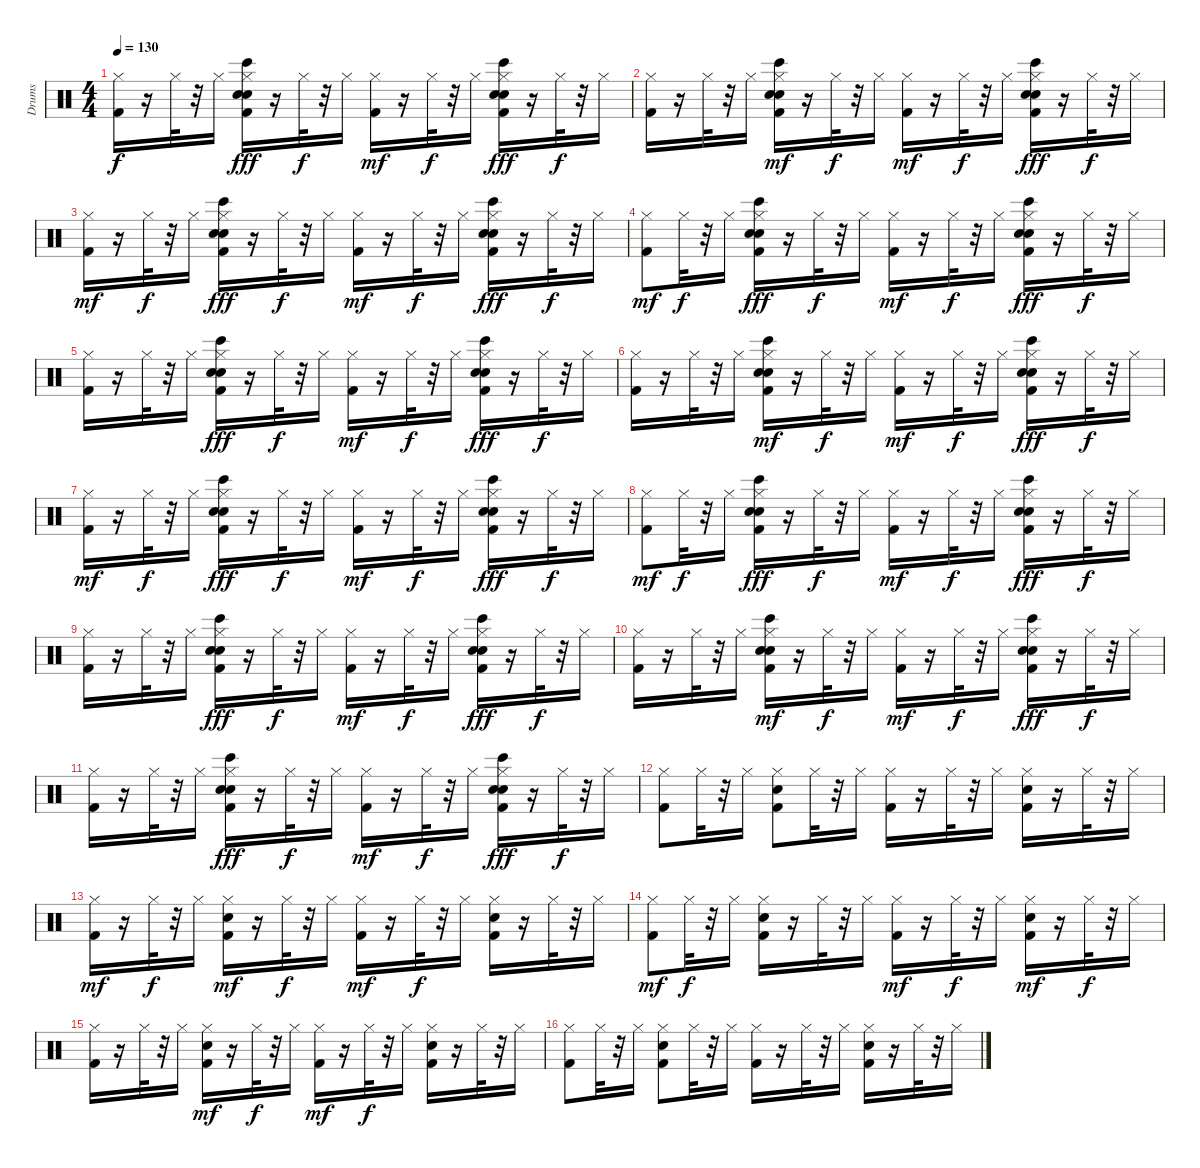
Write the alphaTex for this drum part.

\track ("Drums" "Drums") {instrument percussion}
\staff {score}
\articulation defaults
\ts (4 4)
\tempo 130
\clef neutral
\ks c
("Hi-Hat (closed)" "Kick (hit) 2").16{dy f} r.16 "Hi-Hat (closed)".32 r.32 "Hi-Hat (closed)".16 ("Bongo High (hit)" "Kick (hit) 2" "Snare (hit) 2" "Hi-Hat (closed)" "Hand Clap (hit)").16{dy fff} r.16 "Hi-Hat (closed)".32{dy f} r.32 "Hi-Hat (closed)".16 ("Kick (hit) 2" "Hi-Hat (closed)").16{dy mf} r.16 "Hi-Hat (closed)".32{dy f} r.32 "Hi-Hat (closed)".16 ("Snare (hit) 2" "Kick (hit) 2" "Hi-Hat (closed)" "Bongo High (hit)" "Hand Clap (hit)").16{dy fff} r.16 "Hi-Hat (closed)".32{dy f} r.32 "Hi-Hat (closed)".16 |
("Kick (hit) 2" "Hi-Hat (closed)").16 r.16 "Hi-Hat (closed)".32 r.32 "Hi-Hat (closed)".16 ("Bongo High (hit)" "Hand Clap (hit)" "Kick (hit) 2" "Snare (hit) 2" "Hi-Hat (closed)").16{dy mf} r.16 "Hi-Hat (closed)".32{dy f} r.32 "Hi-Hat (closed)".16 ("Kick (hit) 2" "Hi-Hat (closed)").16{dy mf} r.16 "Hi-Hat (closed)".32{dy f} r.32 "Hi-Hat (closed)".16 ("Bongo High (hit)" "Hand Clap (hit)" "Snare (hit) 2" "Kick (hit) 2" "Hi-Hat (closed)").16{dy fff} r.16 "Hi-Hat (closed)".32{dy f} r.32 "Hi-Hat (closed)".16 |
("Kick (hit) 2" "Hi-Hat (closed)").16{dy mf} r.16 "Hi-Hat (closed)".32{dy f} r.32 "Hi-Hat (closed)".16 ("Snare (hit) 2" "Kick (hit) 2" "Hi-Hat (closed)" "Bongo High (hit)" "Hand Clap (hit)").16{dy fff} r.16 "Hi-Hat (closed)".32{dy f} r.32 "Hi-Hat (closed)".16 ("Hi-Hat (closed)" "Kick (hit) 2").16{dy mf} r.16 "Hi-Hat (closed)".32{dy f} r.32 "Hi-Hat (closed)".16 ("Snare (hit) 2" "Hi-Hat (closed)" "Bongo High (hit)" "Kick (hit) 2" "Hand Clap (hit)").16{dy fff} r.16 "Hi-Hat (closed)".32{dy f} r.32 "Hi-Hat (closed)".16 |
("Kick (hit) 2" "Hi-Hat (closed)").8{dy mf} "Hi-Hat (closed)".32{dy f} r.32 "Hi-Hat (closed)".16 ("Snare (hit) 2" "Kick (hit) 2" "Bongo High (hit)" "Hi-Hat (closed)" "Hand Clap (hit)").16{dy fff} r.16 "Hi-Hat (closed)".32{dy f} r.32 "Hi-Hat (closed)".16 ("Hi-Hat (closed)" "Kick (hit) 2").16{dy mf} r.16 "Hi-Hat (closed)".32{dy f} r.32 "Hi-Hat (closed)".16 ("Kick (hit) 2" "Hi-Hat (closed)" "Snare (hit) 2" "Bongo High (hit)" "Hand Clap (hit)").16{dy fff} r.16 "Hi-Hat (closed)".32{dy f} r.32 "Hi-Hat (closed)".16 |
("Hi-Hat (closed)" "Kick (hit) 2").16 r.16 "Hi-Hat (closed)".32 r.32 "Hi-Hat (closed)".16 ("Bongo High (hit)" "Kick (hit) 2" "Snare (hit) 2" "Hi-Hat (closed)" "Hand Clap (hit)").16{dy fff} r.16 "Hi-Hat (closed)".32{dy f} r.32 "Hi-Hat (closed)".16 ("Kick (hit) 2" "Hi-Hat (closed)").16{dy mf} r.16 "Hi-Hat (closed)".32{dy f} r.32 "Hi-Hat (closed)".16 ("Snare (hit) 2" "Kick (hit) 2" "Hi-Hat (closed)" "Bongo High (hit)" "Hand Clap (hit)").16{dy fff} r.16 "Hi-Hat (closed)".32{dy f} r.32 "Hi-Hat (closed)".16 |
("Kick (hit) 2" "Hi-Hat (closed)").16 r.16 "Hi-Hat (closed)".32 r.32 "Hi-Hat (closed)".16 ("Bongo High (hit)" "Hand Clap (hit)" "Kick (hit) 2" "Snare (hit) 2" "Hi-Hat (closed)").16{dy mf} r.16 "Hi-Hat (closed)".32{dy f} r.32 "Hi-Hat (closed)".16 ("Kick (hit) 2" "Hi-Hat (closed)").16{dy mf} r.16 "Hi-Hat (closed)".32{dy f} r.32 "Hi-Hat (closed)".16 ("Bongo High (hit)" "Hand Clap (hit)" "Snare (hit) 2" "Kick (hit) 2" "Hi-Hat (closed)").16{dy fff} r.16 "Hi-Hat (closed)".32{dy f} r.32 "Hi-Hat (closed)".16 |
("Kick (hit) 2" "Hi-Hat (closed)").16{dy mf} r.16 "Hi-Hat (closed)".32{dy f} r.32 "Hi-Hat (closed)".16 ("Snare (hit) 2" "Kick (hit) 2" "Hi-Hat (closed)" "Bongo High (hit)" "Hand Clap (hit)").16{dy fff} r.16 "Hi-Hat (closed)".32{dy f} r.32 "Hi-Hat (closed)".16 ("Hi-Hat (closed)" "Kick (hit) 2").16{dy mf} r.16 "Hi-Hat (closed)".32{dy f} r.32 "Hi-Hat (closed)".16 ("Snare (hit) 2" "Hi-Hat (closed)" "Bongo High (hit)" "Kick (hit) 2" "Hand Clap (hit)").16{dy fff} r.16 "Hi-Hat (closed)".32{dy f} r.32 "Hi-Hat (closed)".16 |
("Kick (hit) 2" "Hi-Hat (closed)").8{dy mf} "Hi-Hat (closed)".32{dy f} r.32 "Hi-Hat (closed)".16 ("Snare (hit) 2" "Kick (hit) 2" "Bongo High (hit)" "Hi-Hat (closed)" "Hand Clap (hit)").16{dy fff} r.16 "Hi-Hat (closed)".32{dy f} r.32 "Hi-Hat (closed)".16 ("Hi-Hat (closed)" "Kick (hit) 2").16{dy mf} r.16 "Hi-Hat (closed)".32{dy f} r.32 "Hi-Hat (closed)".16 ("Kick (hit) 2" "Hi-Hat (closed)" "Snare (hit) 2" "Bongo High (hit)" "Hand Clap (hit)").16{dy fff} r.16 "Hi-Hat (closed)".32{dy f} r.32 "Hi-Hat (closed)".16 |
("Hi-Hat (closed)" "Kick (hit) 2").16 r.16 "Hi-Hat (closed)".32 r.32 "Hi-Hat (closed)".16 ("Bongo High (hit)" "Kick (hit) 2" "Snare (hit) 2" "Hi-Hat (closed)" "Hand Clap (hit)").16{dy fff} r.16 "Hi-Hat (closed)".32{dy f} r.32 "Hi-Hat (closed)".16 ("Kick (hit) 2" "Hi-Hat (closed)").16{dy mf} r.16 "Hi-Hat (closed)".32{dy f} r.32 "Hi-Hat (closed)".16 ("Snare (hit) 2" "Kick (hit) 2" "Hi-Hat (closed)" "Bongo High (hit)" "Hand Clap (hit)").16{dy fff} r.16 "Hi-Hat (closed)".32{dy f} r.32 "Hi-Hat (closed)".16 |
("Kick (hit) 2" "Hi-Hat (closed)").16 r.16 "Hi-Hat (closed)".32 r.32 "Hi-Hat (closed)".16 ("Bongo High (hit)" "Hand Clap (hit)" "Kick (hit) 2" "Snare (hit) 2" "Hi-Hat (closed)").16{dy mf} r.16 "Hi-Hat (closed)".32{dy f} r.32 "Hi-Hat (closed)".16 ("Kick (hit) 2" "Hi-Hat (closed)").16{dy mf} r.16 "Hi-Hat (closed)".32{dy f} r.32 "Hi-Hat (closed)".16 ("Bongo High (hit)" "Hand Clap (hit)" "Snare (hit) 2" "Kick (hit) 2" "Hi-Hat (closed)").16{dy fff} r.16 "Hi-Hat (closed)".32{dy f} r.32 "Hi-Hat (closed)".16 |
("Kick (hit) 2" "Hi-Hat (closed)").16 r.16 "Hi-Hat (closed)".32 r.32 "Hi-Hat (closed)".16 ("Kick (hit) 2" "Snare (hit) 2" "Hi-Hat (closed)" "Bongo High (hit)" "Hand Clap (hit)").16{dy fff} r.16 "Hi-Hat (closed)".32{dy f} r.32 "Hi-Hat (closed)".16 ("Kick (hit) 2" "Hi-Hat (closed)").16{dy mf} r.16 "Hi-Hat (closed)".32{dy f} r.32 "Hi-Hat (closed)".16 ("Snare (hit) 2" "Kick (hit) 2" "Hi-Hat (closed)" "Bongo High (hit)" "Hand Clap (hit)").16{dy fff} r.16 "Hi-Hat (closed)".32{dy f} r.32 "Hi-Hat (closed)".16 |
("Hi-Hat (closed)" "Kick (hit) 2").8 "Hi-Hat (closed)".32 r.32 "Hi-Hat (closed)".16 ("Hi-Hat (closed)" "Kick (hit) 2" "Snare (hit) 2").8 "Hi-Hat (closed)".32 r.32 "Hi-Hat (closed)".16 ("Hi-Hat (closed)" "Kick (hit) 2").16 r.16 "Hi-Hat (closed)".32 r.32 "Hi-Hat (closed)".16 ("Hi-Hat (closed)" "Snare (hit) 2" "Kick (hit) 2").16 r.16 "Hi-Hat (closed)".32 r.32 "Hi-Hat (closed)".16 |
("Kick (hit) 2" "Hi-Hat (closed)").16{dy mf} r.16 "Hi-Hat (closed)".32{dy f} r.32 "Hi-Hat (closed)".16 ("Snare (hit) 2" "Kick (hit) 2" "Hi-Hat (closed)").16{dy mf} r.16 "Hi-Hat (closed)".32{dy f} r.32 "Hi-Hat (closed)".16 ("Kick (hit) 2" "Hi-Hat (closed)").16{dy mf} r.16 "Hi-Hat (closed)".32{dy f} r.32 "Hi-Hat (closed)".16 ("Snare (hit) 2" "Kick (hit) 2" "Hi-Hat (closed)").16 r.16 "Hi-Hat (closed)".32 r.32 "Hi-Hat (closed)".16 |
("Kick (hit) 2" "Hi-Hat (closed)").8{dy mf} "Hi-Hat (closed)".32{dy f} r.32 "Hi-Hat (closed)".16 ("Snare (hit) 2" "Kick (hit) 2" "Hi-Hat (closed)").16 r.16 "Hi-Hat (closed)".32 r.32 "Hi-Hat (closed)".16 ("Kick (hit) 2" "Hi-Hat (closed)").16{dy mf} r.16 "Hi-Hat (closed)".32{dy f} r.32 "Hi-Hat (closed)".16 ("Snare (hit) 2" "Kick (hit) 2" "Hi-Hat (closed)").16{dy mf} r.16 "Hi-Hat (closed)".32{dy f} r.32 "Hi-Hat (closed)".16 |
("Kick (hit) 2" "Hi-Hat (closed)").16 r.16 "Hi-Hat (closed)".32 r.32 "Hi-Hat (closed)".16 ("Kick (hit) 2" "Snare (hit) 2" "Hi-Hat (closed)").16{dy mf} r.16 "Hi-Hat (closed)".32{dy f} r.32 "Hi-Hat (closed)".16 ("Kick (hit) 2" "Hi-Hat (closed)").16{dy mf} r.16 "Hi-Hat (closed)".32{dy f} r.32 "Hi-Hat (closed)".16 ("Snare (hit) 2" "Kick (hit) 2" "Hi-Hat (closed)").16 r.16 "Hi-Hat (closed)".32 r.32 "Hi-Hat (closed)".16 |
("Hi-Hat (closed)" "Kick (hit) 2").8 "Hi-Hat (closed)".32 r.32 "Hi-Hat (closed)".16 ("Hi-Hat (closed)" "Kick (hit) 2" "Snare (hit) 2").8 "Hi-Hat (closed)".32 r.32 "Hi-Hat (closed)".16 ("Hi-Hat (closed)" "Kick (hit) 2").16 r.16 "Hi-Hat (closed)".32 r.32 "Hi-Hat (closed)".16 ("Hi-Hat (closed)" "Snare (hit) 2" "Kick (hit) 2").16 r.16 "Hi-Hat (closed)".32 r.32 "Hi-Hat (closed)".16
